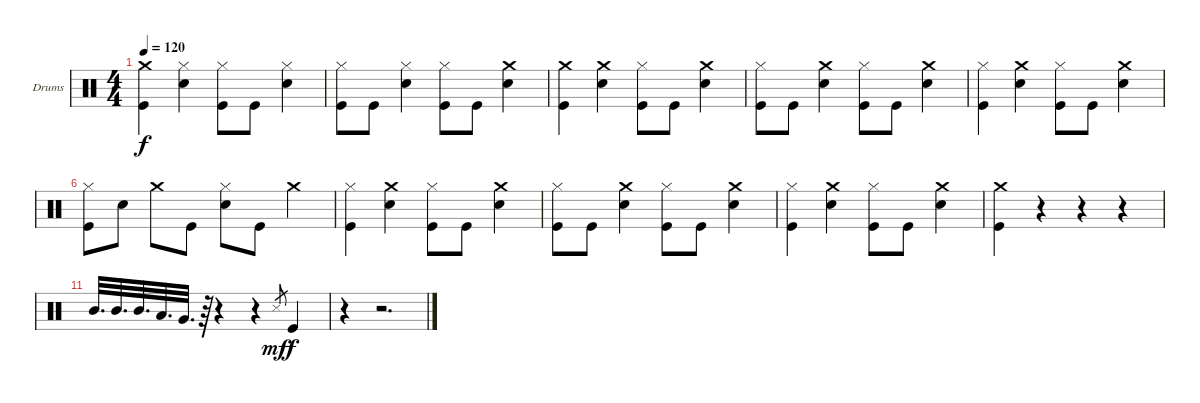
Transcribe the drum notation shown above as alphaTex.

\bracketExtendMode nobrackets
\firstSystemTrackNameOrientation horizontal
\otherSystemsTrackNameOrientation horizontal
\defaultBarNumberDisplay FirstOfSystem
\track ("Drumkit" "Drums") {instrument percussion}
\staff {score}
\articulation defaults
\ts (4 4)
\tempo 120
\clef neutral
\scale
0.240741
\ks c
("Crash medium (hit)" "Kick (hit)").4{dy f} ("Hi-Hat (closed)" "Snare (hit) 2").4 ("Hi-Hat (closed)" "Kick (hit)").8 "Kick (hit)".8 ("Hi-Hat (closed)" "Snare (hit) 2").4 |
\scale
0.259259 ("Hi-Hat (closed)" "Kick (hit)").8 "Kick (hit)".8 ("Hi-Hat (closed)" "Snare (hit) 2").4 ("Hi-Hat (closed)" "Kick (hit)").8 "Kick (hit)".8 ("Crash medium (hit)" "Snare (hit) 2").4 |
\scale
0.236364 ("Crash medium (hit)" "Kick (hit)").4 ("Crash medium (hit)" "Snare (hit) 2").4 ("Hi-Hat (closed)" "Kick (hit)").8 "Kick (hit)".8 ("Crash medium (hit)" "Snare (hit) 2").4 |
\scale
0.254545 ("Hi-Hat (closed)" "Kick (hit)").8 "Kick (hit)".8 ("Crash medium (hit)" "Snare (hit) 2").4 ("Hi-Hat (closed)" "Kick (hit)").8 "Kick (hit)".8 ("Crash medium (hit)" "Snare (hit) 2").4 |
\scale
0.236364 ("Hi-Hat (closed)" "Kick (hit)").4 ("Crash medium (hit)" "Snare (hit) 2").4 ("Hi-Hat (closed)" "Kick (hit)").8 "Kick (hit)".8 ("Crash medium (hit)" "Snare (hit) 2").4 |
\scale
0.272727 ("Hi-Hat (closed)" "Kick (hit)").8 "Snare (hit) 2".8 "Crash medium (hit)".8 "Kick (hit)".8 ("Hi-Hat (closed)" "Snare (hit) 2").8 "Kick (hit)".8 "Crash medium (hit)".4 |
\scale
0.25 ("Hi-Hat (closed)" "Kick (hit)").4 ("Crash medium (hit)" "Snare (hit) 2").4 ("Hi-Hat (closed)" "Kick (hit)").8 "Kick (hit)".8 ("Crash medium (hit)" "Snare (hit) 2").4 |
\scale
0.269231 ("Hi-Hat (closed)" "Kick (hit)").8 "Kick (hit)".8 ("Crash medium (hit)" "Snare (hit) 2").4 ("Hi-Hat (closed)" "Kick (hit)").8 "Kick (hit)".8 ("Crash medium (hit)" "Snare (hit) 2").4 |
\scale
0.25 ("Hi-Hat (closed)" "Kick (hit)").4 ("Crash medium (hit)" "Snare (hit) 2").4 ("Hi-Hat (closed)" "Kick (hit)").8 "Kick (hit)".8 ("Crash medium (hit)" "Snare (hit) 2").4 |
\scale
0.230769 ("Crash medium (hit)" "Kick (hit)").4 r.4 r.4 r.4 |
\scale
0.773537 "Mid Tom (hit)".32{d} "Mid Tom (hit)".32{d} "Mid Tom (hit)".32{d} "Low Tom (hit)".32{d} "Very Low Tom (hit)".32{d} r.64 r.4 r.4 "Snare (side stick) 3".8{gr dy mf} "Kick (hit)".4{dy f} |
\scale
0.226463 r.4 r.2{d}
